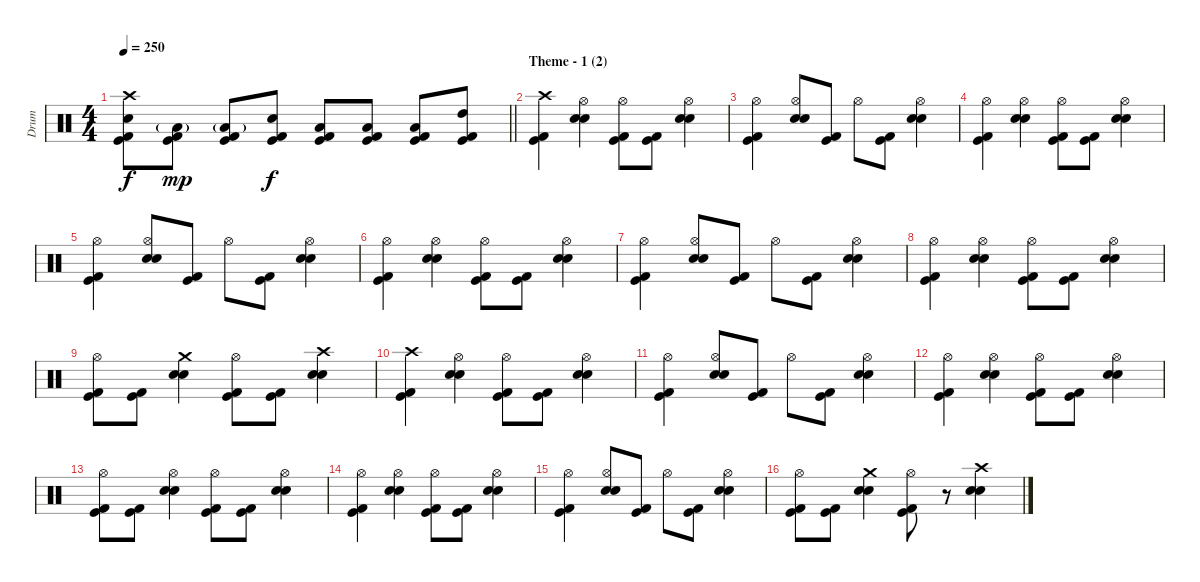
\track ("Drum" "Drum") {instrument percussion}
\staff {score}
\articulation defaults
\ts (4 4)
\tempo 250
\clef neutral
\barLineRight lightlight
\ks c
("Crash high (hit)" "Electric Snare (hit)" "Kick (hit) 2" "Kick (hit)").8{dy f} ("Low Floor Tom (hit)"{g} "Kick (hit) 2" "Kick (hit)").8{dy mp} ("Low Floor Tom (hit)"{g} "Kick (hit) 2" "Kick (hit)").8 ("Electric Snare (hit)" "Kick (hit) 2" "Kick (hit)").8{dy f} ("Low Tom (hit)" "Kick (hit) 2" "Kick (hit)").8 ("Low Floor Tom (hit)" "Kick (hit) 2" "Kick (hit)").8 ("Low Floor Tom (hit)" "Kick (hit) 2" "Kick (hit)").8 ("High Tom (hit)" "Kick (hit) 2" "Kick (hit)").8 |
\section ("" "Theme - 1 (2)")
("Crash high (hit)" "Kick (hit) 2" "Kick (hit)").4 ("Hi-Hat (open)" "Electric Snare (hit)" "Snare (hit) 2").4 ("Hi-Hat (open)" "Kick (hit) 2" "Kick (hit)").8 ("Kick (hit) 2" "Kick (hit)").8 ("Hi-Hat (open)" "Electric Snare (hit)" "Snare (hit) 2").4 |
("Hi-Hat (open)" "Kick (hit) 2" "Kick (hit)").4 ("Hi-Hat (open)" "Electric Snare (hit)" "Snare (hit) 2").8 ("Kick (hit) 2" "Kick (hit)").8 "Hi-Hat (open)".8 ("Kick (hit) 2" "Kick (hit)").8 ("Hi-Hat (open)" "Electric Snare (hit)" "Snare (hit) 2").4 |
("Hi-Hat (open)" "Kick (hit) 2" "Kick (hit)").4 ("Hi-Hat (open)" "Electric Snare (hit)" "Snare (hit) 2").4 ("Hi-Hat (open)" "Kick (hit) 2" "Kick (hit)").8 ("Kick (hit) 2" "Kick (hit)").8 ("Hi-Hat (open)" "Electric Snare (hit)" "Snare (hit) 2").4 |
("Hi-Hat (open)" "Kick (hit) 2" "Kick (hit)").4 ("Hi-Hat (open)" "Electric Snare (hit)" "Snare (hit) 2").8 ("Kick (hit) 2" "Kick (hit)").8 "Hi-Hat (open)".8 ("Kick (hit) 2" "Kick (hit)").8 ("Hi-Hat (open)" "Electric Snare (hit)" "Snare (hit) 2").4 |
("Hi-Hat (open)" "Kick (hit) 2" "Kick (hit)").4 ("Hi-Hat (open)" "Electric Snare (hit)" "Snare (hit) 2").4 ("Hi-Hat (open)" "Kick (hit) 2" "Kick (hit)").8 ("Kick (hit) 2" "Kick (hit)").8 ("Hi-Hat (open)" "Electric Snare (hit)" "Snare (hit) 2").4 |
("Hi-Hat (open)" "Kick (hit) 2" "Kick (hit)").4 ("Hi-Hat (open)" "Electric Snare (hit)" "Snare (hit) 2").8 ("Kick (hit) 2" "Kick (hit)").8 "Hi-Hat (open)".8 ("Kick (hit) 2" "Kick (hit)").8 ("Hi-Hat (open)" "Electric Snare (hit)" "Snare (hit) 2").4 |
("Hi-Hat (open)" "Kick (hit) 2" "Kick (hit)").4 ("Hi-Hat (open)" "Electric Snare (hit)" "Snare (hit) 2").4 ("Hi-Hat (open)" "Kick (hit) 2" "Kick (hit)").8 ("Kick (hit) 2" "Kick (hit)").8 ("Hi-Hat (open)" "Electric Snare (hit)" "Snare (hit) 2").4 |
("Hi-Hat (open)" "Kick (hit) 2" "Kick (hit)").8 ("Kick (hit) 2" "Kick (hit)").8 ("Crash medium (hit)" "Electric Snare (hit)" "Snare (hit) 2").4 ("Hi-Hat (open)" "Kick (hit) 2" "Kick (hit)").8 ("Kick (hit) 2" "Kick (hit)").8 ("Crash high (hit)" "Electric Snare (hit)" "Snare (hit) 2").4 |
("Crash high (hit)" "Kick (hit) 2" "Kick (hit)").4 ("Hi-Hat (open)" "Electric Snare (hit)" "Snare (hit) 2").4 ("Hi-Hat (open)" "Kick (hit) 2" "Kick (hit)").8 ("Kick (hit) 2" "Kick (hit)").8 ("Hi-Hat (open)" "Electric Snare (hit)" "Snare (hit) 2").4 |
("Hi-Hat (open)" "Kick (hit) 2" "Kick (hit)").4 ("Hi-Hat (open)" "Electric Snare (hit)" "Snare (hit) 2").8 ("Kick (hit) 2" "Kick (hit)").8 "Hi-Hat (open)".8 ("Kick (hit) 2" "Kick (hit)").8 ("Hi-Hat (open)" "Electric Snare (hit)" "Snare (hit) 2").4 |
("Hi-Hat (open)" "Kick (hit) 2" "Kick (hit)").4 ("Hi-Hat (open)" "Electric Snare (hit)" "Snare (hit) 2").4 ("Hi-Hat (open)" "Kick (hit) 2" "Kick (hit)").8 ("Kick (hit) 2" "Kick (hit)").8 ("Hi-Hat (open)" "Electric Snare (hit)" "Snare (hit) 2").4 |
("Hi-Hat (open)" "Kick (hit) 2" "Kick (hit)").8 ("Kick (hit) 2" "Kick (hit)").8 ("Hi-Hat (open)" "Electric Snare (hit)" "Snare (hit) 2").4 ("Hi-Hat (open)" "Kick (hit) 2" "Kick (hit)").8 ("Kick (hit) 2" "Kick (hit)").8 ("Hi-Hat (open)" "Electric Snare (hit)" "Snare (hit) 2").4 |
("Hi-Hat (open)" "Kick (hit) 2" "Kick (hit)").4 ("Hi-Hat (open)" "Electric Snare (hit)" "Snare (hit) 2").4 ("Hi-Hat (open)" "Kick (hit) 2" "Kick (hit)").8 ("Kick (hit) 2" "Kick (hit)").8 ("Hi-Hat (open)" "Electric Snare (hit)" "Snare (hit) 2").4 |
("Hi-Hat (open)" "Kick (hit) 2" "Kick (hit)").4 ("Hi-Hat (open)" "Electric Snare (hit)" "Snare (hit) 2").8 ("Kick (hit) 2" "Kick (hit)").8 "Hi-Hat (open)".8 ("Kick (hit) 2" "Kick (hit)").8 ("Hi-Hat (open)" "Electric Snare (hit)" "Snare (hit) 2").4 |
("Hi-Hat (open)" "Kick (hit) 2" "Kick (hit)").8 ("Kick (hit) 2" "Kick (hit)").8 ("Crash medium (hit)" "Electric Snare (hit)" "Snare (hit) 2").4 ("Hi-Hat (open)" "Kick (hit) 2" "Kick (hit)").8 r.8 ("Crash high (hit)" "Electric Snare (hit)" "Snare (hit) 2").4
